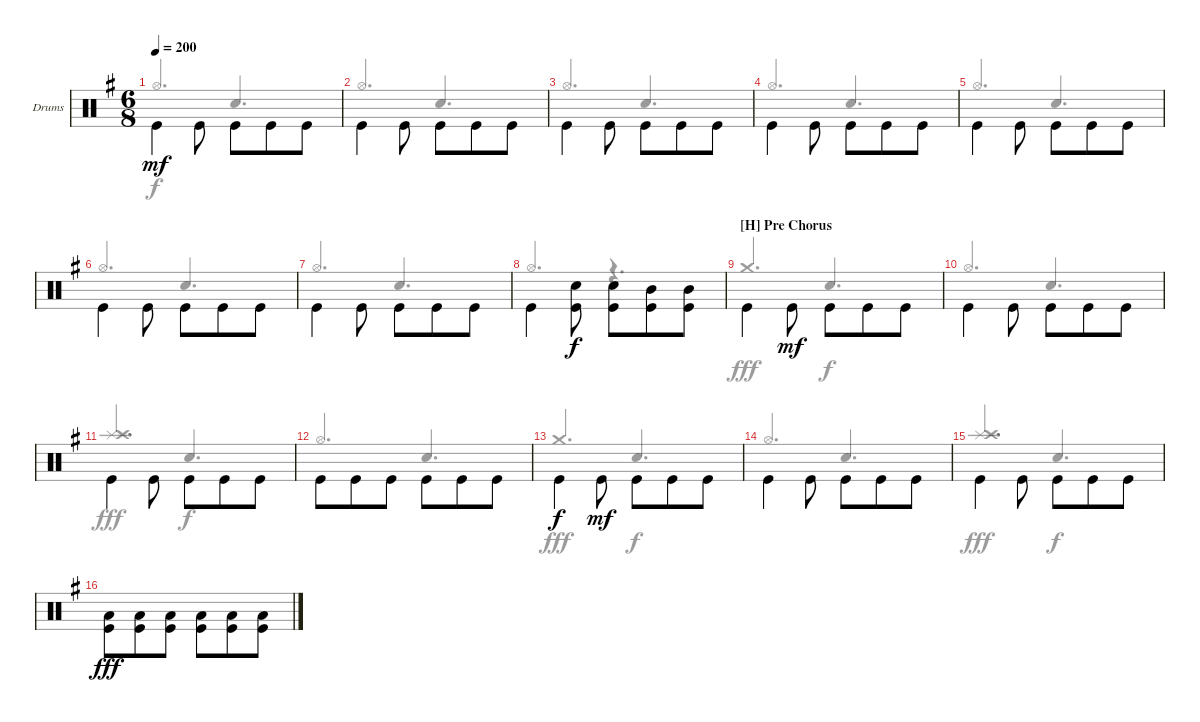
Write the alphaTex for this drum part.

\bracketExtendMode groupsimilarinstruments
\firstSystemTrackNameOrientation horizontal
\otherSystemsTrackNameOrientation horizontal
\track ("Drumkit" "Drums") {instrument percussion}
\staff {score}
\articulation defaults
\voice
\ts (6 8)
\tempo 200
\clef neutral
\ks eminor "Kick (hit)".4{dy mf beam invert} "Kick (hit)".8{beam invert} "Kick (hit)".8{beam invert} "Kick (hit)".8 "Kick (hit)".8
|
"Kick (hit)".4{beam invert} "Kick (hit)".8{beam invert} "Kick (hit)".8 "Kick (hit)".8{beam invert} "Kick (hit)".8 |
"Kick (hit)".4{beam invert} "Kick (hit)".8{beam invert} "Kick (hit)".8{beam invert} "Kick (hit)".8 "Kick (hit)".8 |
"Kick (hit)".4{beam invert} "Kick (hit)".8{beam invert} "Kick (hit)".8 "Kick (hit)".8{beam invert} "Kick (hit)".8 |
"Kick (hit)".4{beam invert} "Kick (hit)".8{beam invert} "Kick (hit)".8{beam invert} "Kick (hit)".8 "Kick (hit)".8 |
"Kick (hit)".4{beam invert} "Kick (hit)".8{beam invert} "Kick (hit)".8 "Kick (hit)".8{beam invert} "Kick (hit)".8 |
"Kick (hit)".4{beam invert} "Kick (hit)".8{beam invert} "Kick (hit)".8{beam invert} "Kick (hit)".8 "Kick (hit)".8 |
"Kick (hit)".4{beam invert} ("Kick (hit)" "Snare (hit) 2").8{dy f beam invert} ("Kick (hit)" "Snare (hit) 2").8 ("Kick (hit)" "Mid Tom (hit)").8 ("Kick (hit)" "Mid Tom (hit)").8{beam invert} |
\section ("H" "Pre Chorus")
"Kick (hit)".4{beam invert} "Kick (hit)".8{dy mf beam invert} "Kick (hit)".8{beam invert} "Kick (hit)".8 "Kick (hit)".8 |
"Kick (hit)".4{beam invert} "Kick (hit)".8{beam invert} "Kick (hit)".8 "Kick (hit)".8{beam invert} "Kick (hit)".8 |
"Kick (hit)".4{beam invert} "Kick (hit)".8{beam invert} "Kick (hit)".8{beam invert} "Kick (hit)".8 "Kick (hit)".8 |
"Kick (hit)".8{beam invert} "Kick (hit)".8{beam invert} "Kick (hit)".8{beam invert} "Kick (hit)".8 "Kick (hit)".8 "Kick (hit)".8{beam invert} |
"Kick (hit)".4{dy f beam invert} "Kick (hit)".8{dy mf beam invert} "Kick (hit)".8{beam invert} "Kick (hit)".8 "Kick (hit)".8 |
"Kick (hit)".4{beam invert} "Kick (hit)".8{beam invert} "Kick (hit)".8 "Kick (hit)".8{beam invert} "Kick (hit)".8 |
"Kick (hit)".4{beam invert} "Kick (hit)".8{beam invert} "Kick (hit)".8{beam invert} "Kick (hit)".8 "Kick (hit)".8 |
("Kick (hit)" "Low Tom (hit)").8{dy fff beam invert} ("Kick (hit)" "Low Tom (hit)").8{beam invert} ("Kick (hit)" "Low Tom (hit)").8{beam invert} ("Kick (hit)" "Low Tom (hit)").8 ("Kick (hit)" "Low Tom (hit)").8 ("Kick (hit)" "Low Tom (hit)").8{beam invert}
\voice
\clef neutral
\ottava regular
\simile none
\ks eminor "Hi-Hat (open)".4{d dy f beam invert} "Snare (hit) 2".4{d beam invert}
|
"Hi-Hat (open)".4{d beam invert} "Snare (hit) 2".4{d beam invert} |
"Hi-Hat (open)".4{d beam invert} "Snare (hit) 2".4{d beam invert} |
"Hi-Hat (open)".4{d beam invert} "Snare (hit) 2".4{d beam invert} |
"Hi-Hat (open)".4{d beam invert} "Snare (hit) 2".4{d beam invert} |
"Hi-Hat (open)".4{d beam invert} "Snare (hit) 2".4{d beam invert} |
"Hi-Hat (open)".4{d beam invert} "Snare (hit) 2".4{d beam invert} |
"Hi-Hat (open)".4{d beam invert} r.4{d} |
"Crash medium (hit)".4{d dy fff beam invert} "Snare (hit) 2".4{d dy f beam invert} |
"Hi-Hat (open)".4{d beam invert} "Snare (hit) 2".4{d beam invert} |
("Splash (hit)" "Crash high (hit)").4{d dy fff beam invert} "Snare (hit) 2".4{d dy f beam invert} |
"Hi-Hat (open)".4{d beam invert} "Snare (hit) 2".4{d beam invert} |
"Crash medium (hit)".4{d dy fff beam invert} "Snare (hit) 2".4{d dy f beam invert} |
"Hi-Hat (open)".4{d beam invert} "Snare (hit) 2".4{d beam invert} |
("Splash (hit)" "Crash high (hit)").4{d dy fff beam invert} "Snare (hit) 2".4{d dy f beam invert} |
